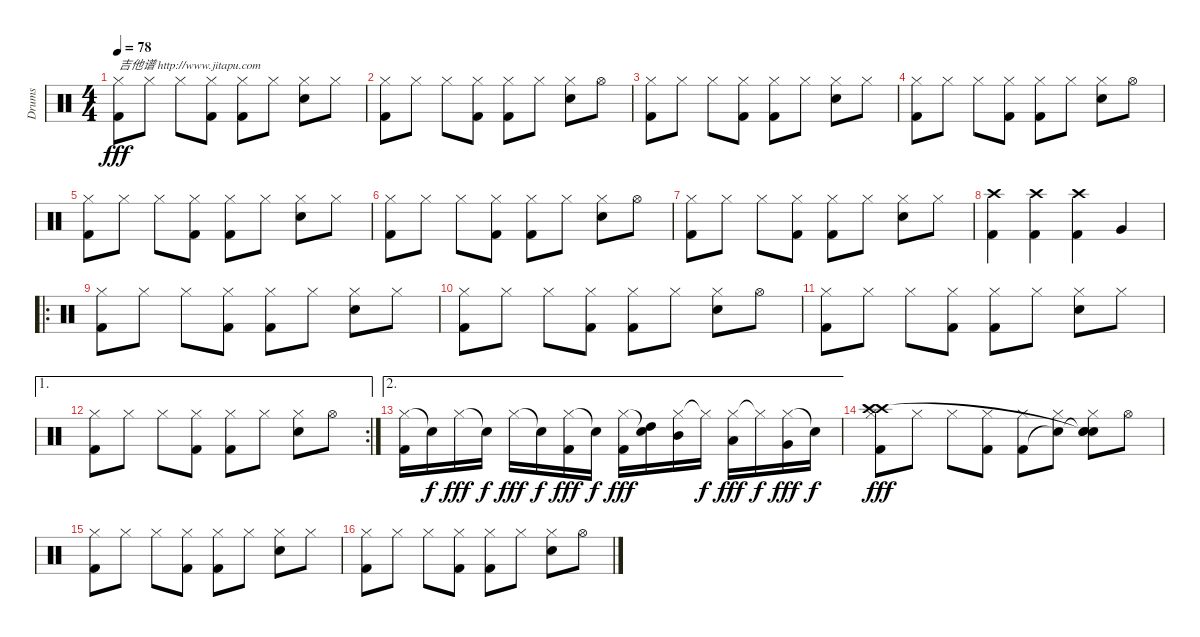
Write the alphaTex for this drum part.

\track ("Drums" "Drums") {instrument percussion}
\staff {score}
\articulation defaults
\ts (4 4)
\tempo 78
\clef neutral
\ks c
("Hi-Hat (closed)" "Kick (hit) 2").8{txt "吉他谱 http://www.jitapu.com" dy fff} "Hi-Hat (closed)".8 "Hi-Hat (closed)".8 ("Hi-Hat (closed)" "Kick (hit) 2").8 ("Hi-Hat (closed)" "Kick (hit) 2").8 "Hi-Hat (closed)".8 ("Hi-Hat (closed)" "Snare (hit) 2").8 "Hi-Hat (closed)".8 |
("Hi-Hat (closed)" "Kick (hit) 2").8 "Hi-Hat (closed)".8 "Hi-Hat (closed)".8 ("Hi-Hat (closed)" "Kick (hit) 2").8 ("Hi-Hat (closed)" "Kick (hit) 2").8 "Hi-Hat (closed)".8 ("Hi-Hat (closed)" "Snare (hit) 2").8 "Hi-Hat (open)".8 |
("Hi-Hat (closed)" "Kick (hit) 2").8 "Hi-Hat (closed)".8 "Hi-Hat (closed)".8 ("Hi-Hat (closed)" "Kick (hit) 2").8 ("Hi-Hat (closed)" "Kick (hit) 2").8 "Hi-Hat (closed)".8 ("Hi-Hat (closed)" "Snare (hit) 2").8 "Hi-Hat (closed)".8 |
("Hi-Hat (closed)" "Kick (hit) 2").8 "Hi-Hat (closed)".8 "Hi-Hat (closed)".8 ("Hi-Hat (closed)" "Kick (hit) 2").8 ("Hi-Hat (closed)" "Kick (hit) 2").8 "Hi-Hat (closed)".8 ("Hi-Hat (closed)" "Snare (hit) 2").8 "Hi-Hat (open)".8 |
("Hi-Hat (closed)" "Kick (hit) 2").8 "Hi-Hat (closed)".8 "Hi-Hat (closed)".8 ("Hi-Hat (closed)" "Kick (hit) 2").8 ("Hi-Hat (closed)" "Kick (hit) 2").8 "Hi-Hat (closed)".8 ("Hi-Hat (closed)" "Snare (hit) 2").8 "Hi-Hat (closed)".8 |
("Hi-Hat (closed)" "Kick (hit) 2").8 "Hi-Hat (closed)".8 "Hi-Hat (closed)".8 ("Hi-Hat (closed)" "Kick (hit) 2").8 ("Hi-Hat (closed)" "Kick (hit) 2").8 "Hi-Hat (closed)".8 ("Hi-Hat (closed)" "Snare (hit) 2").8 "Hi-Hat (open)".8 |
("Hi-Hat (closed)" "Kick (hit) 2").8 "Hi-Hat (closed)".8 "Hi-Hat (closed)".8 ("Hi-Hat (closed)" "Kick (hit) 2").8 ("Hi-Hat (closed)" "Kick (hit) 2").8 "Hi-Hat (closed)".8 ("Hi-Hat (closed)" "Snare (hit) 2").8 "Hi-Hat (closed)".8 |
("Crash high (hit)" "Kick (hit) 2").4 ("Crash high (hit)" "Kick (hit) 2").4 ("Crash high (hit)" "Kick (hit) 2").4 "Very Low Tom (hit)".4 |
\ro
("Hi-Hat (closed)" "Kick (hit) 2").8 "Hi-Hat (closed)".8 "Hi-Hat (closed)".8 ("Hi-Hat (closed)" "Kick (hit) 2").8 ("Hi-Hat (closed)" "Kick (hit) 2").8 "Hi-Hat (closed)".8 ("Hi-Hat (closed)" "Snare (hit) 2").8 "Hi-Hat (closed)".8 |
("Hi-Hat (closed)" "Kick (hit) 2").8 "Hi-Hat (closed)".8 "Hi-Hat (closed)".8 ("Hi-Hat (closed)" "Kick (hit) 2").8 ("Hi-Hat (closed)" "Kick (hit) 2").8 "Hi-Hat (closed)".8 ("Hi-Hat (closed)" "Snare (hit) 2").8 "Hi-Hat (open)".8 |
("Hi-Hat (closed)" "Kick (hit) 2").8 "Hi-Hat (closed)".8 "Hi-Hat (closed)".8 ("Hi-Hat (closed)" "Kick (hit) 2").8 ("Hi-Hat (closed)" "Kick (hit) 2").8 "Hi-Hat (closed)".8 ("Hi-Hat (closed)" "Snare (hit) 2").8 "Hi-Hat (closed)".8 |
\ae 1
\rc 2
("Hi-Hat (closed)" "Kick (hit) 2").8 "Hi-Hat (closed)".8 "Hi-Hat (closed)".8 ("Hi-Hat (closed)" "Kick (hit) 2").8 ("Hi-Hat (closed)" "Kick (hit) 2").8 "Hi-Hat (closed)".8 ("Hi-Hat (closed)" "Snare (hit) 2").8 "Hi-Hat (open)".8 |
\ae 2
("Hi-Hat (closed)" "Kick (hit) 2").16 "Snare (hit)"{t}.16{dy f} "Hi-Hat (closed)".16{dy fff} "Snare (hit)"{t}.16{dy f} "Hi-Hat (closed)".16{dy fff} "Snare (hit)"{t}.16{dy f} ("Hi-Hat (closed)" "Kick (hit) 2").16{dy fff} "Snare (hit)"{t}.16{dy f} ("Hi-Hat (closed)" "Kick (hit) 2").16{dy fff} ("Snare (hit)"{t} "High Tom (hit)").16 ("Hi-Hat (closed)" "Mid Tom (hit)").16 "Hi-Hat (closed)"{t}.16{dy f} ("Hi-Hat (closed)" "Low Tom (hit)").16{dy fff} "Hi-Hat (closed)"{t}.16{dy f} ("Hi-Hat (closed)" "Very Low Tom (hit)").16{dy fff} "Snare (hit)"{t}.16{dy f} |
("Hi-Hat (closed)" "Crash high (hit)" "Crash high (hit)" "Kick (hit) 2").8{dy fff} "Hi-Hat (closed)".8 "Hi-Hat (closed)".8 ("Hi-Hat (closed)" "Kick (hit) 2").8 ("Hi-Hat (closed)" "Kick (hit) 2").8 ("Hi-Hat (closed)" "Snare (hit)"{t}).8 ("Hi-Hat (closed)" "Snare (hit) 2"{t} "Snare (hit)"{t} "Snare (hit) 2").8 "Hi-Hat (open)".8 |
("Hi-Hat (closed)" "Kick (hit) 2").8 "Hi-Hat (closed)".8 "Hi-Hat (closed)".8 ("Hi-Hat (closed)" "Kick (hit) 2").8 ("Hi-Hat (closed)" "Kick (hit) 2").8 "Hi-Hat (closed)".8 ("Hi-Hat (closed)" "Snare (hit) 2").8 "Hi-Hat (closed)".8 |
("Hi-Hat (closed)" "Kick (hit) 2").8 "Hi-Hat (closed)".8 "Hi-Hat (closed)".8 ("Hi-Hat (closed)" "Kick (hit) 2").8 ("Hi-Hat (closed)" "Kick (hit) 2").8 "Hi-Hat (closed)".8 ("Hi-Hat (closed)" "Snare (hit) 2").8 "Hi-Hat (open)".8
